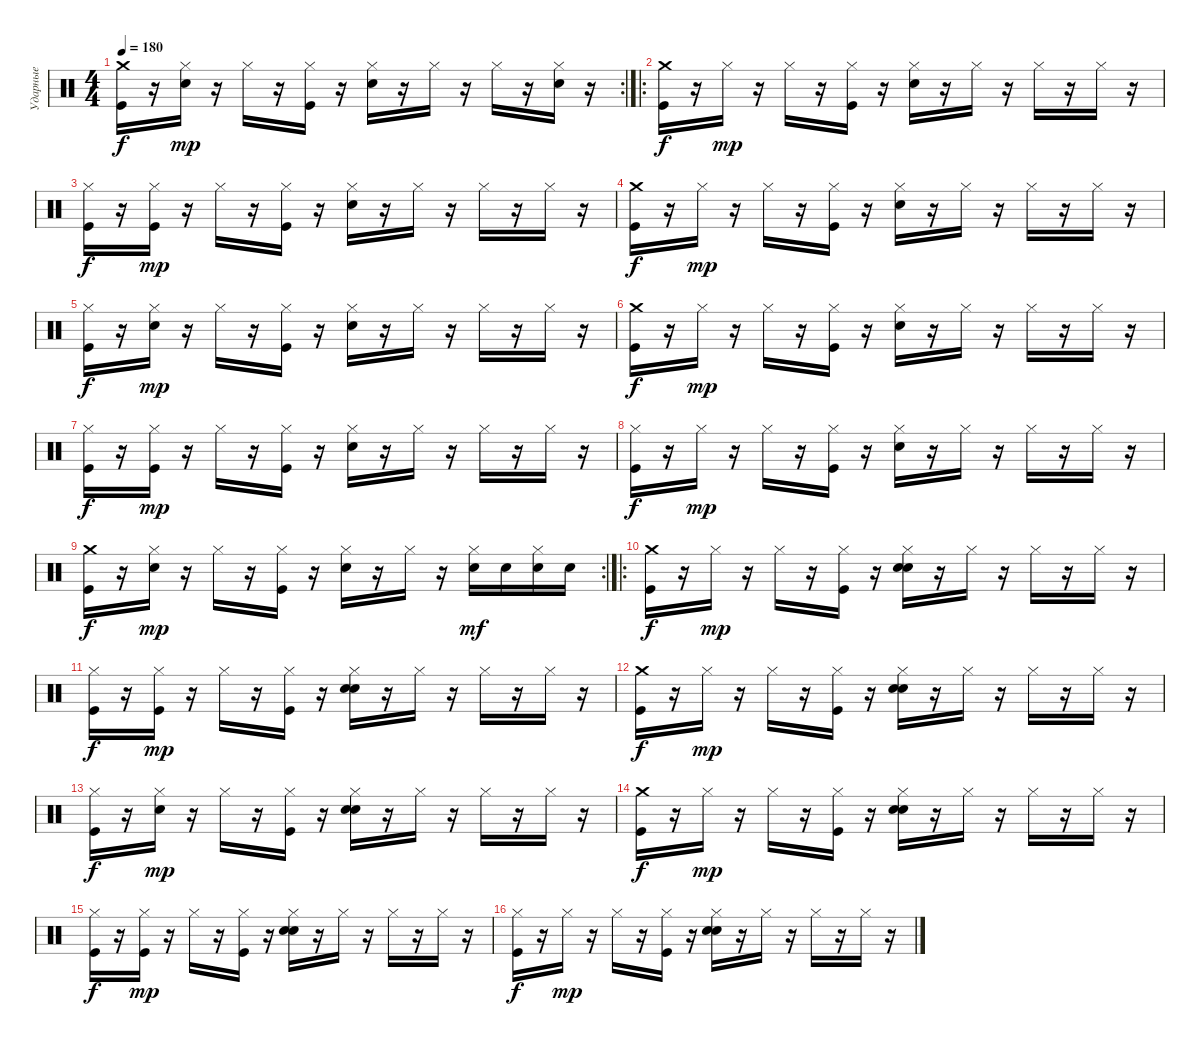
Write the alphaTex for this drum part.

\track ("Ударные" "Ударные") {instrument percussion}
\staff {score}
\articulation defaults
\rc 2
\ts (4 4)
\tempo 180
\clef neutral
\ks c
("Crash medium (hit)" "Kick (hit)").16{dy f} r.16 ("Hi-Hat (closed)" "Electric Snare (hit)").16{dy mp} r.16 "Hi-Hat (closed)".16 r.16 ("Hi-Hat (closed)" "Kick (hit)").16 r.16 ("Hi-Hat (closed)" "Electric Snare (hit)").16 r.16 "Hi-Hat (closed)".16 r.16 "Hi-Hat (closed)".16 r.16 ("Hi-Hat (closed)" "Electric Snare (hit)").16 r.16 |
\ro
("Crash medium (hit)" "Kick (hit)").16{dy f} r.16 "Hi-Hat (closed)".16{dy mp} r.16 "Hi-Hat (closed)".16 r.16 ("Hi-Hat (closed)" "Kick (hit)").16 r.16 ("Hi-Hat (closed)" "Electric Snare (hit)").16 r.16 "Hi-Hat (closed)".16 r.16 "Hi-Hat (closed)".16 r.16 "Hi-Hat (closed)".16 r.16 |
("Hi-Hat (closed)" "Kick (hit)").16{dy f} r.16 ("Hi-Hat (closed)" "Kick (hit)").16{dy mp} r.16 "Hi-Hat (closed)".16 r.16 ("Hi-Hat (closed)" "Kick (hit)").16 r.16 ("Hi-Hat (closed)" "Electric Snare (hit)").16 r.16 "Hi-Hat (closed)".16 r.16 "Hi-Hat (closed)".16 r.16 "Hi-Hat (closed)".16 r.16 |
("Crash medium (hit)" "Kick (hit)").16{dy f} r.16 "Hi-Hat (closed)".16{dy mp} r.16 "Hi-Hat (closed)".16 r.16 ("Hi-Hat (closed)" "Kick (hit)").16 r.16 ("Hi-Hat (closed)" "Electric Snare (hit)").16 r.16 "Hi-Hat (closed)".16 r.16 "Hi-Hat (closed)".16 r.16 "Hi-Hat (closed)".16 r.16 |
("Hi-Hat (closed)" "Kick (hit)").16{dy f} r.16 ("Hi-Hat (closed)" "Electric Snare (hit)").16{dy mp} r.16 "Hi-Hat (closed)".16 r.16 ("Hi-Hat (closed)" "Kick (hit)").16 r.16 ("Hi-Hat (closed)" "Electric Snare (hit)").16 r.16 "Hi-Hat (closed)".16 r.16 "Hi-Hat (closed)".16 r.16 "Hi-Hat (closed)".16 r.16 |
("Crash medium (hit)" "Kick (hit)").16{dy f} r.16 "Hi-Hat (closed)".16{dy mp} r.16 "Hi-Hat (closed)".16 r.16 ("Hi-Hat (closed)" "Kick (hit)").16 r.16 ("Hi-Hat (closed)" "Electric Snare (hit)").16 r.16 "Hi-Hat (closed)".16 r.16 "Hi-Hat (closed)".16 r.16 "Hi-Hat (closed)".16 r.16 |
("Hi-Hat (closed)" "Kick (hit)").16{dy f} r.16 ("Hi-Hat (closed)" "Kick (hit)").16{dy mp} r.16 "Hi-Hat (closed)".16 r.16 ("Hi-Hat (closed)" "Kick (hit)").16 r.16 ("Hi-Hat (closed)" "Electric Snare (hit)").16 r.16 "Hi-Hat (closed)".16 r.16 "Hi-Hat (closed)".16 r.16 "Hi-Hat (closed)".16 r.16 |
("Hi-Hat (closed)" "Kick (hit)").16{dy f} r.16 "Hi-Hat (closed)".16{dy mp} r.16 "Hi-Hat (closed)".16 r.16 ("Hi-Hat (closed)" "Kick (hit)").16 r.16 ("Hi-Hat (closed)" "Electric Snare (hit)").16 r.16 "Hi-Hat (closed)".16 r.16 "Hi-Hat (closed)".16 r.16 "Hi-Hat (closed)".16 r.16 |
\rc 2
("Crash medium (hit)" "Kick (hit)").16{dy f} r.16 ("Hi-Hat (closed)" "Electric Snare (hit)").16{dy mp} r.16 "Hi-Hat (closed)".16 r.16 ("Hi-Hat (closed)" "Kick (hit)").16 r.16 ("Hi-Hat (closed)" "Electric Snare (hit)").16 r.16 "Hi-Hat (closed)".16 r.16 ("Hi-Hat (closed)" "Electric Snare (hit)").16{dy mf} "Electric Snare (hit)".16 ("Hi-Hat (closed)" "Electric Snare (hit)").16 "Electric Snare (hit)".16 |
\ro
("Crash medium (hit)" "Kick (hit)").16{dy f} r.16 "Hi-Hat (closed)".16{dy mp} r.16 "Hi-Hat (closed)".16 r.16 ("Hi-Hat (closed)" "Kick (hit)").16 r.16 ("Hi-Hat (closed)" "Electric Snare (hit)" "Hand Clap (hit)").16 r.16 "Hi-Hat (closed)".16 r.16 "Hi-Hat (closed)".16 r.16 "Hi-Hat (closed)".16 r.16 |
("Hi-Hat (closed)" "Kick (hit)").16{dy f} r.16 ("Hi-Hat (closed)" "Kick (hit)").16{dy mp} r.16 "Hi-Hat (closed)".16 r.16 ("Hi-Hat (closed)" "Kick (hit)").16 r.16 ("Hi-Hat (closed)" "Electric Snare (hit)" "Hand Clap (hit)").16 r.16 "Hi-Hat (closed)".16 r.16 "Hi-Hat (closed)".16 r.16 "Hi-Hat (closed)".16 r.16 |
("Crash medium (hit)" "Kick (hit)").16{dy f} r.16 "Hi-Hat (closed)".16{dy mp} r.16 "Hi-Hat (closed)".16 r.16 ("Hi-Hat (closed)" "Kick (hit)").16 r.16 ("Hi-Hat (closed)" "Electric Snare (hit)" "Hand Clap (hit)").16 r.16 "Hi-Hat (closed)".16 r.16 "Hi-Hat (closed)".16 r.16 "Hi-Hat (closed)".16 r.16 |
("Hi-Hat (closed)" "Kick (hit)").16{dy f} r.16 ("Hi-Hat (closed)" "Electric Snare (hit)").16{dy mp} r.16 "Hi-Hat (closed)".16 r.16 ("Hi-Hat (closed)" "Kick (hit)").16 r.16 ("Hi-Hat (closed)" "Electric Snare (hit)" "Hand Clap (hit)").16 r.16 "Hi-Hat (closed)".16 r.16 "Hi-Hat (closed)".16 r.16 "Hi-Hat (closed)".16 r.16 |
("Crash medium (hit)" "Kick (hit)").16{dy f} r.16 "Hi-Hat (closed)".16{dy mp} r.16 "Hi-Hat (closed)".16 r.16 ("Hi-Hat (closed)" "Kick (hit)").16 r.16 ("Hi-Hat (closed)" "Electric Snare (hit)" "Hand Clap (hit)").16 r.16 "Hi-Hat (closed)".16 r.16 "Hi-Hat (closed)".16 r.16 "Hi-Hat (closed)".16 r.16 |
("Hi-Hat (closed)" "Kick (hit)").16{dy f} r.16 ("Hi-Hat (closed)" "Kick (hit)").16{dy mp} r.16 "Hi-Hat (closed)".16 r.16 ("Hi-Hat (closed)" "Kick (hit)").16 r.16 ("Hi-Hat (closed)" "Electric Snare (hit)" "Hand Clap (hit)").16 r.16 "Hi-Hat (closed)".16 r.16 "Hi-Hat (closed)".16 r.16 "Hi-Hat (closed)".16 r.16 |
("Hi-Hat (closed)" "Kick (hit)").16{dy f} r.16 "Hi-Hat (closed)".16{dy mp} r.16 "Hi-Hat (closed)".16 r.16 ("Hi-Hat (closed)" "Kick (hit)").16 r.16 ("Hi-Hat (closed)" "Electric Snare (hit)" "Hand Clap (hit)").16 r.16 "Hi-Hat (closed)".16 r.16 "Hi-Hat (closed)".16 r.16 "Hi-Hat (closed)".16 r.16
